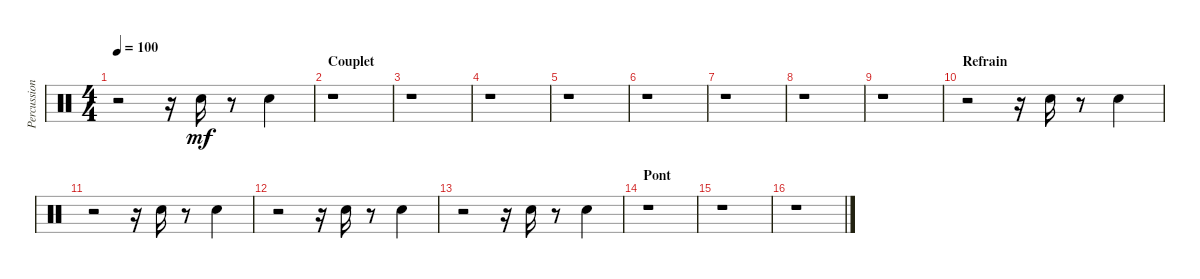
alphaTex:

\track ("Percussions" "Percussion") {instrument percussion}
\staff {score}
\articulation defaults
\ts (4 4)
\tempo 100
\clef neutral
\ks c
r.2{dy mf} r.16 "Hand Clap (hit)".16 r.8 "Hand Clap (hit)".4 |
\section ("" "Couplet")
r.1 |
r.1 |
r.1 |
r.1 |
r.1 |
r.1 |
r.1 |
r.1 |
\section ("" "Refrain")
r.2 r.16 "Hand Clap (hit)".16 r.8 "Hand Clap (hit)".4 |
r.2 r.16 "Hand Clap (hit)".16 r.8 "Hand Clap (hit)".4 |
r.2 r.16 "Hand Clap (hit)".16 r.8 "Hand Clap (hit)".4 |
r.2 r.16 "Hand Clap (hit)".16 r.8 "Hand Clap (hit)".4 |
\section ("" "Pont")
r.1 |
r.1 |
r.1
